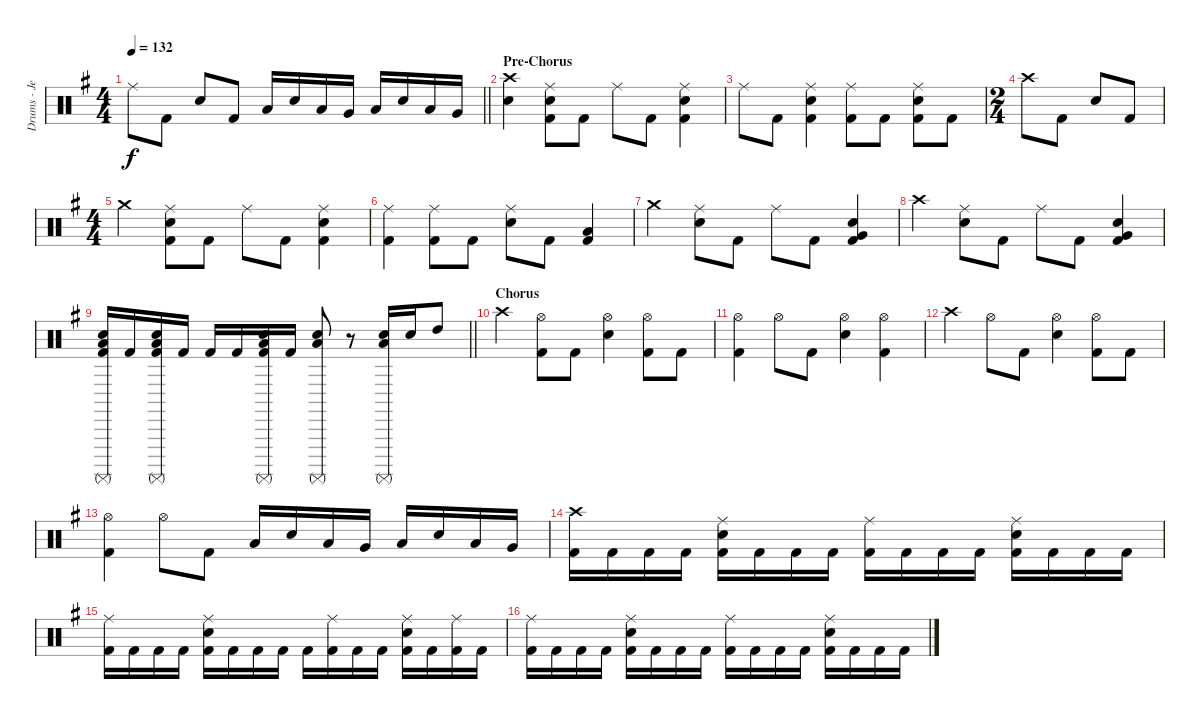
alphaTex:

\track ("Drums - Jeroen Simons " "Drums - Je") {instrument percussion}
\staff {score}
\articulation defaults
\ts (4 4)
\tempo 132
\clef neutral
\barLineRight lightlight
\ks g "Ride (middle)".8{dy f} "Kick (hit) 2".8 "Electric Snare (hit)".8 "Kick (hit) 2".8 "Low Tom (hit)".16 "Electric Snare (hit)".16 "Low Tom (hit)".16 "Very Low Tom (hit)".16 "Low Tom (hit)".16 "Electric Snare (hit)".16 "Low Tom (hit)".16 "Very Low Tom (hit)".16
|
\section ("" "Pre-Chorus")
("Crash high (hit)" "Electric Snare (hit)").4 ("Ride (middle)" "Electric Snare (hit)" "Kick (hit) 2").8 "Kick (hit) 2".8 "Ride (middle)".8 "Kick (hit) 2".8 ("Ride (middle)" "Electric Snare (hit)" "Kick (hit) 2").4 |
"Ride (middle)".8 "Kick (hit) 2".8 ("Ride (middle)" "Electric Snare (hit)" "Kick (hit) 2").4 ("Ride (middle)" "Kick (hit) 2").8 "Kick (hit) 2".8 ("Ride (middle)" "Electric Snare (hit)" "Kick (hit) 2").8 "Kick (hit) 2".8 |
\ts (2 4)
"Crash high (hit)".8 "Kick (hit) 2".8 "Electric Snare (hit)".8 "Kick (hit) 2".8 |
\ts (4 4)
"Crash medium (hit)".4 ("Ride (middle)" "Electric Snare (hit)" "Kick (hit) 2").8 "Kick (hit) 2".8 "Ride (middle)".8 "Kick (hit) 2".8 ("Ride (middle)" "Electric Snare (hit)" "Kick (hit) 2").4 |
("Ride (middle)" "Kick (hit) 2").4 ("Ride (middle)" "Kick (hit) 2").8 "Kick (hit) 2".8 ("Ride (middle)" "Electric Snare (hit)").8 "Kick (hit) 2".8 ("Low Tom (hit)" "Kick (hit) 2").4 |
"Crash medium (hit)".4 ("Ride (middle)" "Electric Snare (hit)").8 "Kick (hit) 2".8 "Ride (middle)".8 "Kick (hit) 2".8 ("Very Low Tom (hit)" "Electric Snare (hit)" "Kick (hit) 2").4 |
"Crash high (hit)".4 ("Ride (middle)" "Electric Snare (hit)").8 "Kick (hit) 2".8 "Ride (middle)".8 "Kick (hit) 2".8 ("Very Low Tom (hit)" "Electric Snare (hit)" "Kick (hit) 2").4 |
\barLineRight lightlight
("Surdo (mute)" "Low Tom (hit)" "Electric Snare (hit)" "Kick (hit) 2").16 "Kick (hit) 2".16 ("Surdo (mute)" "Low Tom (hit)" "Electric Snare (hit)" "Kick (hit) 2").16 "Kick (hit) 2".16 "Kick (hit) 2".16 "Kick (hit) 2".16 ("Surdo (mute)" "Low Tom (hit)" "Electric Snare (hit)" "Kick (hit) 2").16 "Kick (hit) 2".16 ("Surdo (mute)" "Low Tom (hit)" "Electric Snare (hit)").8 r.8 ("Surdo (mute)" "Low Tom (hit)" "Electric Snare (hit)").16 "Electric Snare (hit)".16 "High Tom (hit)".8 |
\section ("" "Chorus")
"Crash high (hit)".4 ("Hi-Hat (open)" "Kick (hit) 2").8 "Kick (hit) 2".8 ("Hi-Hat (open)" "Electric Snare (hit)").4 ("Hi-Hat (open)" "Kick (hit) 2").8 "Kick (hit) 2".8 |
("Hi-Hat (open)" "Kick (hit) 2").4 "Hi-Hat (open)".8 "Kick (hit) 2".8 ("Hi-Hat (open)" "Electric Snare (hit)").4 ("Hi-Hat (open)" "Kick (hit) 2").4 |
"Crash high (hit)".4 "Hi-Hat (open)".8 "Kick (hit) 2".8 ("Hi-Hat (open)" "Electric Snare (hit)").4 ("Hi-Hat (open)" "Kick (hit) 2").8 "Kick (hit) 2".8 |
("Hi-Hat (open)" "Kick (hit) 2").4 "Hi-Hat (open)".8 "Kick (hit) 2".8 "Low Tom (hit)".16 "Electric Snare (hit)".16 "Low Tom (hit)".16 "Very Low Tom (hit)".16 "Low Tom (hit)".16 "Electric Snare (hit)".16 "Low Tom (hit)".16 "Very Low Tom (hit)".16 |
("Crash high (hit)" "Kick (hit) 2").16 "Kick (hit) 2".16 "Kick (hit) 2".16 "Kick (hit) 2".16 ("Ride (middle)" "Electric Snare (hit)" "Kick (hit) 2").16 "Kick (hit) 2".16 "Kick (hit) 2".16 "Kick (hit) 2".16 ("Ride (middle)" "Kick (hit) 2").16 "Kick (hit) 2".16 "Kick (hit) 2".16 "Kick (hit) 2".16 ("Ride (middle)" "Electric Snare (hit)" "Kick (hit) 2").16 "Kick (hit) 2".16 "Kick (hit) 2".16 "Kick (hit) 2".16 |
("Ride (middle)" "Kick (hit) 2").16 "Kick (hit) 2".16 "Kick (hit) 2".16 "Kick (hit) 2".16 ("Ride (middle)" "Electric Snare (hit)" "Kick (hit) 2").16 "Kick (hit) 2".16 "Kick (hit) 2".16 "Kick (hit) 2".16 "Kick (hit) 2".16 ("Ride (middle)" "Kick (hit) 2").16 "Kick (hit) 2".16 "Kick (hit) 2".16 ("Ride (middle)" "Electric Snare (hit)" "Kick (hit) 2").16 "Kick (hit) 2".16 ("Ride (middle)" "Kick (hit) 2").16 "Kick (hit) 2".16 |
("Ride (middle)" "Kick (hit) 2").16 "Kick (hit) 2".16 "Kick (hit) 2".16 "Kick (hit) 2".16 ("Ride (middle)" "Electric Snare (hit)" "Kick (hit) 2").16 "Kick (hit) 2".16 "Kick (hit) 2".16 "Kick (hit) 2".16 ("Ride (middle)" "Kick (hit) 2").16 "Kick (hit) 2".16 "Kick (hit) 2".16 "Kick (hit) 2".16 ("Ride (middle)" "Electric Snare (hit)" "Kick (hit) 2").16 "Kick (hit) 2".16 "Kick (hit) 2".16 "Kick (hit) 2".16
